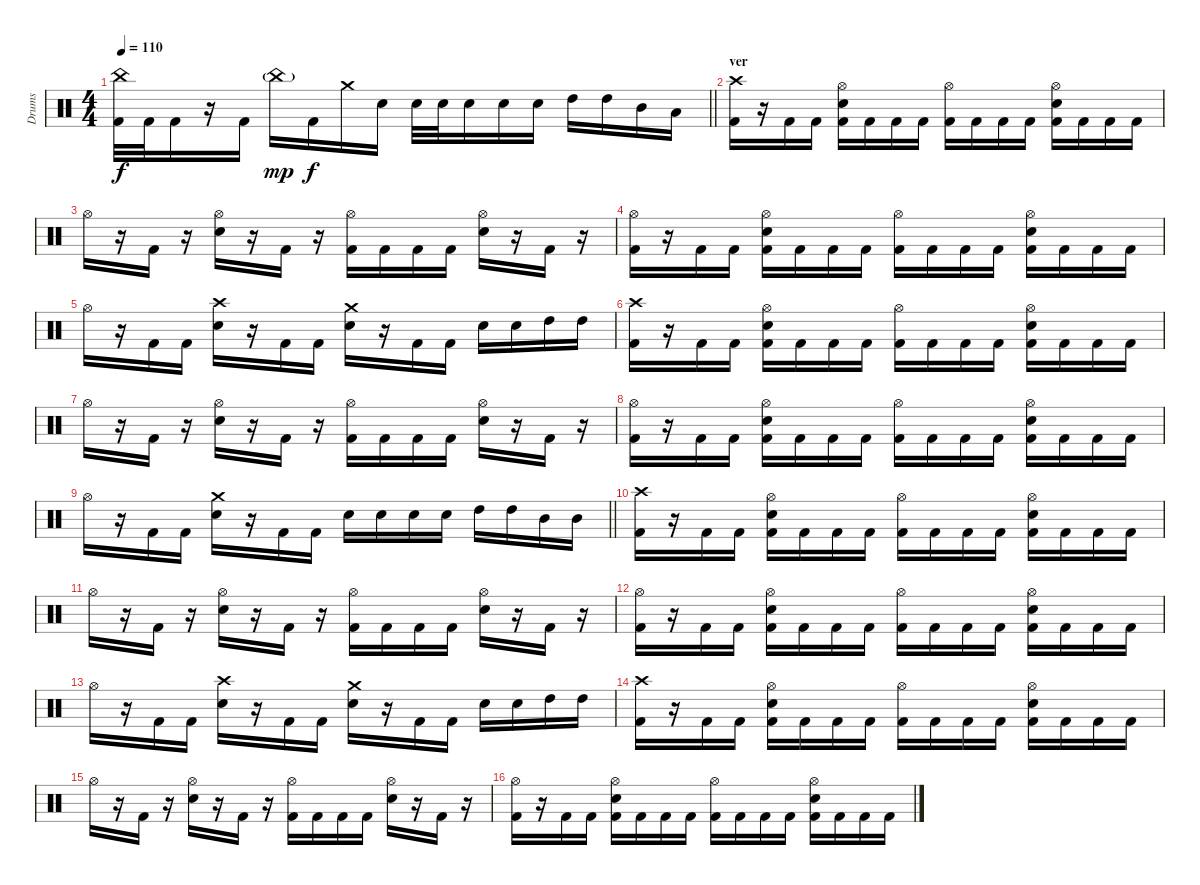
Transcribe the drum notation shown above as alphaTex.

\track ("Drums" "Drums") {instrument percussion}
\staff {score}
\articulation defaults
\ts (4 4)
\tempo 110
\clef neutral
\barLineRight lightlight
\ks c
("China (hit)" "Kick (hit) 2").32{dy f} "Kick (hit) 2".32 "Kick (hit) 2".16 r.16 "Kick (hit) 2".16 "China (hit)"{g}.16{dy mp} "Kick (hit) 2".16{dy f} "Crash medium (hit)".16 "Electric Snare (hit)".16 "Electric Snare (hit)".32 "Electric Snare (hit)".32 "Electric Snare (hit)".16 "Electric Snare (hit)".16 "Electric Snare (hit)".16 "High Tom (hit)".16 "High Tom (hit)".16 "Mid Tom (hit)".16 "Low Tom (hit)".16 |
\section ("" "ver")
("Crash high (hit)" "Kick (hit) 2").16 r.16 "Kick (hit) 2".16 "Kick (hit) 2".16 ("Hi-Hat (open)" "Electric Snare (hit)" "Kick (hit) 2").16 "Kick (hit) 2".16 "Kick (hit) 2".16 "Kick (hit) 2".16 ("Hi-Hat (open)" "Kick (hit) 2").16 "Kick (hit) 2".16 "Kick (hit) 2".16 "Kick (hit) 2".16 ("Hi-Hat (open)" "Electric Snare (hit)" "Kick (hit) 2").16 "Kick (hit) 2".16 "Kick (hit) 2".16 "Kick (hit) 2".16 |
"Hi-Hat (open)".16 r.16 "Kick (hit) 2".16 r.16 ("Hi-Hat (open)" "Electric Snare (hit)").16 r.16 "Kick (hit) 2".16 r.16 ("Hi-Hat (open)" "Kick (hit) 2").16 "Kick (hit) 2".16 "Kick (hit) 2".16 "Kick (hit) 2".16 ("Hi-Hat (open)" "Electric Snare (hit)").16 r.16 "Kick (hit) 2".16 r.16 |
("Hi-Hat (open)" "Kick (hit) 2").16 r.16 "Kick (hit) 2".16 "Kick (hit) 2".16 ("Hi-Hat (open)" "Electric Snare (hit)" "Kick (hit) 2").16 "Kick (hit) 2".16 "Kick (hit) 2".16 "Kick (hit) 2".16 ("Hi-Hat (open)" "Kick (hit) 2").16 "Kick (hit) 2".16 "Kick (hit) 2".16 "Kick (hit) 2".16 ("Hi-Hat (open)" "Electric Snare (hit)" "Kick (hit) 2").16 "Kick (hit) 2".16 "Kick (hit) 2".16 "Kick (hit) 2".16 |
"Hi-Hat (open)".16 r.16 "Kick (hit) 2".16 "Kick (hit) 2".16 ("Crash high (hit)" "Electric Snare (hit)").16 r.16 "Kick (hit) 2".16 "Kick (hit) 2".16 ("Crash medium (hit)" "Electric Snare (hit)").16 r.16 "Kick (hit) 2".16 "Kick (hit) 2".16 "Electric Snare (hit)".16 "Electric Snare (hit)".16 "High Tom (hit)".16 "High Tom (hit)".16 |
("Crash high (hit)" "Kick (hit) 2").16 r.16 "Kick (hit) 2".16 "Kick (hit) 2".16 ("Hi-Hat (open)" "Electric Snare (hit)" "Kick (hit) 2").16 "Kick (hit) 2".16 "Kick (hit) 2".16 "Kick (hit) 2".16 ("Hi-Hat (open)" "Kick (hit) 2").16 "Kick (hit) 2".16 "Kick (hit) 2".16 "Kick (hit) 2".16 ("Hi-Hat (open)" "Electric Snare (hit)" "Kick (hit) 2").16 "Kick (hit) 2".16 "Kick (hit) 2".16 "Kick (hit) 2".16 |
"Hi-Hat (open)".16 r.16 "Kick (hit) 2".16 r.16 ("Hi-Hat (open)" "Electric Snare (hit)").16 r.16 "Kick (hit) 2".16 r.16 ("Hi-Hat (open)" "Kick (hit) 2").16 "Kick (hit) 2".16 "Kick (hit) 2".16 "Kick (hit) 2".16 ("Hi-Hat (open)" "Electric Snare (hit)").16 r.16 "Kick (hit) 2".16 r.16 |
("Hi-Hat (open)" "Kick (hit) 2").16 r.16 "Kick (hit) 2".16 "Kick (hit) 2".16 ("Hi-Hat (open)" "Electric Snare (hit)" "Kick (hit) 2").16 "Kick (hit) 2".16 "Kick (hit) 2".16 "Kick (hit) 2".16 ("Hi-Hat (open)" "Kick (hit) 2").16 "Kick (hit) 2".16 "Kick (hit) 2".16 "Kick (hit) 2".16 ("Hi-Hat (open)" "Electric Snare (hit)" "Kick (hit) 2").16 "Kick (hit) 2".16 "Kick (hit) 2".16 "Kick (hit) 2".16 |
\barLineRight lightlight "Hi-Hat (open)".16
r.16 "Kick (hit) 2".16 "Kick (hit) 2".16 ("Crash medium (hit)" "Electric Snare (hit)").16 r.16 "Kick (hit) 2".16 "Kick (hit) 2".16 "Electric Snare (hit)".16 "Electric Snare (hit)".16 "Electric Snare (hit)".16 "Electric Snare (hit)".16 "High Tom (hit)".16 "High Tom (hit)".16 "Mid Tom (hit)".16 "Mid Tom (hit)".16 |
("Crash high (hit)" "Kick (hit) 2").16 r.16 "Kick (hit) 2".16 "Kick (hit) 2".16 ("Hi-Hat (open)" "Electric Snare (hit)" "Kick (hit) 2").16 "Kick (hit) 2".16 "Kick (hit) 2".16 "Kick (hit) 2".16 ("Hi-Hat (open)" "Kick (hit) 2").16 "Kick (hit) 2".16 "Kick (hit) 2".16 "Kick (hit) 2".16 ("Hi-Hat (open)" "Electric Snare (hit)" "Kick (hit) 2").16 "Kick (hit) 2".16 "Kick (hit) 2".16 "Kick (hit) 2".16 |
"Hi-Hat (open)".16 r.16 "Kick (hit) 2".16 r.16 ("Hi-Hat (open)" "Electric Snare (hit)").16 r.16 "Kick (hit) 2".16 r.16 ("Hi-Hat (open)" "Kick (hit) 2").16 "Kick (hit) 2".16 "Kick (hit) 2".16 "Kick (hit) 2".16 ("Hi-Hat (open)" "Electric Snare (hit)").16 r.16 "Kick (hit) 2".16 r.16 |
("Hi-Hat (open)" "Kick (hit) 2").16 r.16 "Kick (hit) 2".16 "Kick (hit) 2".16 ("Hi-Hat (open)" "Electric Snare (hit)" "Kick (hit) 2").16 "Kick (hit) 2".16 "Kick (hit) 2".16 "Kick (hit) 2".16 ("Hi-Hat (open)" "Kick (hit) 2").16 "Kick (hit) 2".16 "Kick (hit) 2".16 "Kick (hit) 2".16 ("Hi-Hat (open)" "Electric Snare (hit)" "Kick (hit) 2").16 "Kick (hit) 2".16 "Kick (hit) 2".16 "Kick (hit) 2".16 |
"Hi-Hat (open)".16 r.16 "Kick (hit) 2".16 "Kick (hit) 2".16 ("Crash high (hit)" "Electric Snare (hit)").16 r.16 "Kick (hit) 2".16 "Kick (hit) 2".16 ("Crash medium (hit)" "Electric Snare (hit)").16 r.16 "Kick (hit) 2".16 "Kick (hit) 2".16 "Electric Snare (hit)".16 "Electric Snare (hit)".16 "High Tom (hit)".16 "High Tom (hit)".16 |
("Crash high (hit)" "Kick (hit) 2").16 r.16 "Kick (hit) 2".16 "Kick (hit) 2".16 ("Hi-Hat (open)" "Electric Snare (hit)" "Kick (hit) 2").16 "Kick (hit) 2".16 "Kick (hit) 2".16 "Kick (hit) 2".16 ("Hi-Hat (open)" "Kick (hit) 2").16 "Kick (hit) 2".16 "Kick (hit) 2".16 "Kick (hit) 2".16 ("Hi-Hat (open)" "Electric Snare (hit)" "Kick (hit) 2").16 "Kick (hit) 2".16 "Kick (hit) 2".16 "Kick (hit) 2".16 |
"Hi-Hat (open)".16 r.16 "Kick (hit) 2".16 r.16 ("Hi-Hat (open)" "Electric Snare (hit)").16 r.16 "Kick (hit) 2".16 r.16 ("Hi-Hat (open)" "Kick (hit) 2").16 "Kick (hit) 2".16 "Kick (hit) 2".16 "Kick (hit) 2".16 ("Hi-Hat (open)" "Electric Snare (hit)").16 r.16 "Kick (hit) 2".16 r.16 |
("Hi-Hat (open)" "Kick (hit) 2").16 r.16 "Kick (hit) 2".16 "Kick (hit) 2".16 ("Hi-Hat (open)" "Electric Snare (hit)" "Kick (hit) 2").16 "Kick (hit) 2".16 "Kick (hit) 2".16 "Kick (hit) 2".16 ("Hi-Hat (open)" "Kick (hit) 2").16 "Kick (hit) 2".16 "Kick (hit) 2".16 "Kick (hit) 2".16 ("Hi-Hat (open)" "Electric Snare (hit)" "Kick (hit) 2").16 "Kick (hit) 2".16 "Kick (hit) 2".16 "Kick (hit) 2".16
